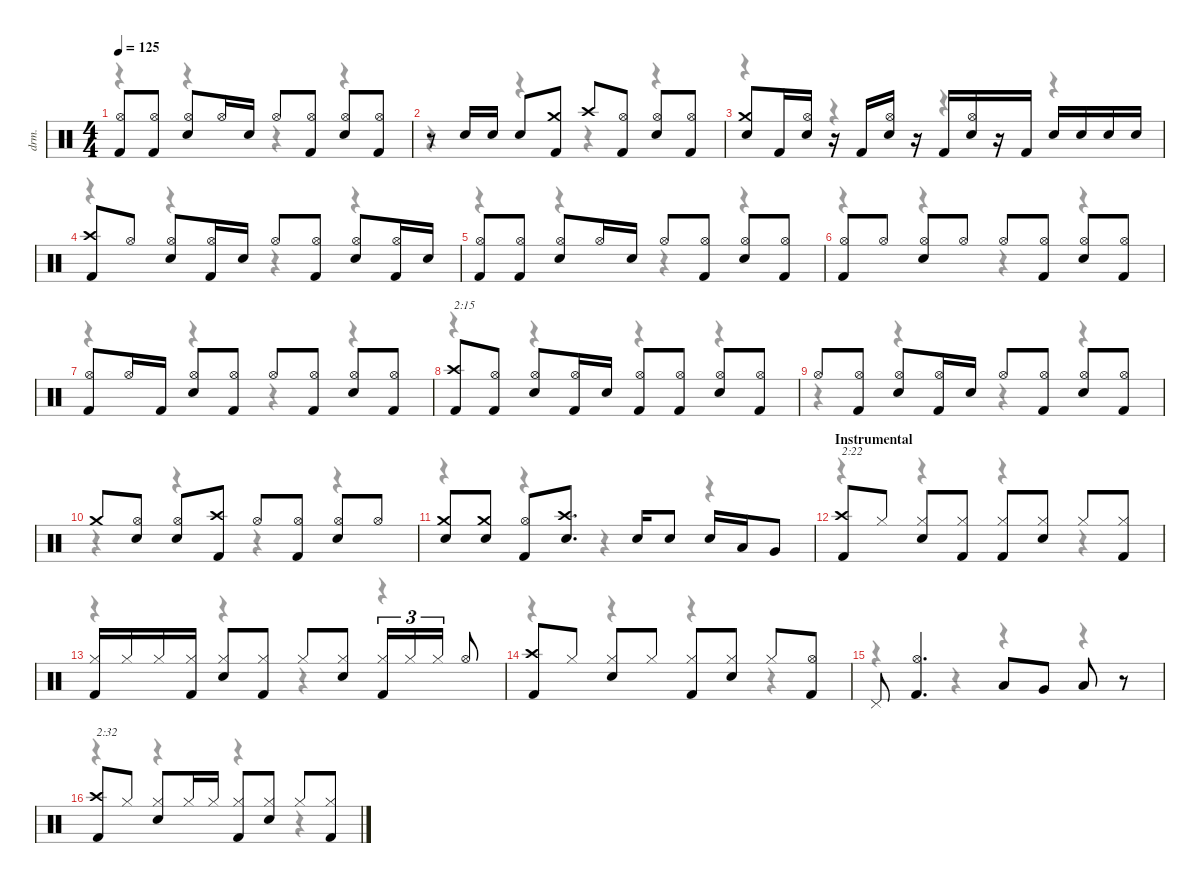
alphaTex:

\defaultSystemsLayout 4
\hideDynamics
\bracketExtendMode nobrackets
\otherSystemsTrackNameOrientation horizontal
\track ("Drums" "drm.") {instrument percussion}
\staff {score}
\articulation defaults
\voice
\ts (4 4)
\tempo 125
\clef neutral
\ks c
("Hi-Hat (open)" "Kick (hit) 2").8{dy f beam Up} ("Hi-Hat (open)" "Kick (hit) 2").8{beam Up} ("Hi-Hat (open)" "Snare (hit) 2").8{beam Up} "Hi-Hat (open)".16{beam Up} "Snare (hit) 2".16{beam Up} "Hi-Hat (open)".8{beam Up} ("Hi-Hat (open)" "Kick (hit) 2").8{beam Up} ("Hi-Hat (open)" "Snare (hit) 2").8{beam Up} ("Hi-Hat (open)" "Kick (hit) 2").8{beam Up} |
r.8{beam Up} "Snare (hit) 2".16{beam Up} "Snare (hit) 2".16{beam Up} "Snare (hit) 2".8{beam Up} ("Crash medium (hit)" "Kick (hit) 2").8{beam Up} "Crash high (hit)".8{beam Up} ("Hi-Hat (open)" "Kick (hit) 2").8{beam Up} ("Hi-Hat (open)" "Snare (hit) 2").8{beam Up} ("Hi-Hat (open)" "Kick (hit) 2").8{beam Up} |
("Crash medium (hit)" "Snare (hit) 2").8{beam Up} "Kick (hit) 2".16{beam Up} ("Hi-Hat (open)" "Snare (hit) 2").16{beam Up} r.16{beam Up} "Kick (hit) 2".16{beam Up} ("Hi-Hat (open)" "Snare (hit) 2").16{beam Up} r.16{beam Up} "Kick (hit) 2".16{beam Up} ("Hi-Hat (open)" "Snare (hit) 2").16{beam Up} r.16{beam Up} "Kick (hit) 2".16{beam Up} "Snare (hit) 2".16{beam Up} "Snare (hit) 2".16{beam Up} "Snare (hit) 2".16{beam Up} "Snare (hit) 2".16{beam Up} |
("Crash high (hit)" "Kick (hit) 2").8{beam Up} "Hi-Hat (open)".8{beam Up} ("Hi-Hat (open)" "Snare (hit) 2").8{beam Up} ("Hi-Hat (open)" "Kick (hit) 2").16{beam Up} "Snare (hit) 2".16{beam Up} "Hi-Hat (open)".8{beam Up} ("Hi-Hat (open)" "Kick (hit) 2").8{beam Up} ("Hi-Hat (open)" "Snare (hit) 2").8{beam Up} ("Hi-Hat (open)" "Kick (hit) 2").16{beam Up} "Snare (hit) 2".16{beam Up} |
("Hi-Hat (open)" "Kick (hit) 2").8{beam Up} ("Hi-Hat (open)" "Kick (hit) 2").8{beam Up} ("Hi-Hat (open)" "Snare (hit) 2").8{beam Up} "Hi-Hat (open)".16{beam Up} "Snare (hit) 2".16{beam Up} "Hi-Hat (open)".8{beam Up} ("Hi-Hat (open)" "Kick (hit) 2").8{beam Up} ("Hi-Hat (open)" "Snare (hit) 2").8{beam Up} ("Hi-Hat (open)" "Kick (hit) 2").8{beam Up} |
("Hi-Hat (open)" "Kick (hit) 2").8{beam Up} "Hi-Hat (open)".8{beam Up} ("Hi-Hat (open)" "Snare (hit) 2").8{beam Up} "Hi-Hat (open)".8{beam Up} "Hi-Hat (open)".8{beam Up} ("Hi-Hat (open)" "Kick (hit) 2").8{beam Up} ("Hi-Hat (open)" "Snare (hit) 2").8{beam Up} ("Hi-Hat (open)" "Kick (hit) 2").8{beam Up} |
("Hi-Hat (open)" "Kick (hit) 2").8{beam Up} "Hi-Hat (open)".16{beam Up} "Kick (hit) 2".16{beam Up} ("Hi-Hat (open)" "Snare (hit) 2").8{beam Up} ("Hi-Hat (open)" "Kick (hit) 2").8{beam Up} "Hi-Hat (open)".8{beam Up} ("Hi-Hat (open)" "Kick (hit) 2").8{beam Up} ("Hi-Hat (open)" "Snare (hit) 2").8{beam Up} ("Hi-Hat (open)" "Kick (hit) 2").8{beam Up} |
("Crash high (hit)" "Kick (hit) 2").8{txt "2:15" beam Up} ("Hi-Hat (open)" "Kick (hit) 2").8{beam Up} ("Hi-Hat (open)" "Snare (hit) 2").8{beam Up} ("Hi-Hat (open)" "Kick (hit) 2").16{beam Up} "Snare (hit) 2".16{beam Up} ("Hi-Hat (open)" "Kick (hit) 2").8{beam Up} ("Hi-Hat (open)" "Kick (hit) 2").8{beam Up} ("Hi-Hat (open)" "Snare (hit) 2").8{beam Up} ("Hi-Hat (open)" "Kick (hit) 2").8{beam Up} |
"Hi-Hat (open)".8{beam Up} ("Hi-Hat (open)" "Kick (hit) 2").8{beam Up} ("Hi-Hat (open)" "Snare (hit) 2").8{beam Up} ("Hi-Hat (open)" "Kick (hit) 2").16{beam Up} "Snare (hit) 2".16{beam Up} "Hi-Hat (open)".8{beam Up} ("Hi-Hat (open)" "Kick (hit) 2").8{beam Up} ("Hi-Hat (open)" "Snare (hit) 2").8{beam Up} ("Hi-Hat (open)" "Kick (hit) 2").8{beam Up} |
"Crash medium (hit)".8{beam Up} ("Hi-Hat (open)" "Snare (hit) 2").8{beam Up} ("Hi-Hat (open)" "Snare (hit) 2").8{beam Up} ("Crash high (hit)" "Kick (hit) 2").8{beam Up} "Hi-Hat (open)".8{beam Up} ("Hi-Hat (open)" "Kick (hit) 2").8{beam Up} ("Hi-Hat (open)" "Snare (hit) 2").8{beam Up} "Hi-Hat (open)".8{beam Up} |
("Crash medium (hit)" "Snare (hit) 2").8{beam Up} ("Crash medium (hit)" "Snare (hit) 2").8{beam Up} ("Hi-Hat (open)" "Kick (hit) 2").8{beam Up} ("Crash high (hit)" "Snare (hit) 2").8{d beam Up} "Snare (hit) 2".16{beam Up} "Snare (hit) 2".8{beam Up} "Snare (hit) 2".16{beam Up} "Low Tom (hit)".16{beam Up} "Very Low Tom (hit)".8{beam Up} |
\section ("" "Instrumental")
("Crash high (hit)" "Kick (hit) 2").8{txt "2:22" beam Up} "Hi-Hat (closed)".8{beam Up} ("Hi-Hat (closed)" "Snare (hit) 2").8{beam Up} ("Hi-Hat (closed)" "Kick (hit) 2").8{beam Up} ("Hi-Hat (closed)" "Kick (hit) 2").8{beam Up} ("Hi-Hat (closed)" "Snare (hit) 2").8{beam Up} "Hi-Hat (closed)".8{beam Up} ("Hi-Hat (closed)" "Kick (hit) 2").8{beam Up} |
("Hi-Hat (closed)" "Kick (hit) 2").16{beam Up} "Hi-Hat (closed)".16{beam Up} "Hi-Hat (closed)".16{beam Up} ("Hi-Hat (closed)" "Kick (hit) 2").16{beam Up} ("Hi-Hat (closed)" "Snare (hit) 2").8{beam Up} ("Hi-Hat (closed)" "Kick (hit) 2").8{beam Up} "Hi-Hat (closed)".8{beam Up} ("Hi-Hat (closed)" "Snare (hit) 2").8{beam Up} ("Hi-Hat (closed)" "Kick (hit) 2").16{tu (3 2) beam Up} "Hi-Hat (closed)".16{tu (3 2) beam Up} "Hi-Hat (closed)".16{tu (3 2) beam Up} "Hi-Hat (open)".8{beam Up} |
("Crash high (hit)" "Kick (hit) 2").8{beam Up} "Hi-Hat (closed)".8{beam Up} ("Hi-Hat (closed)" "Snare (hit) 2").8{beam Up} "Hi-Hat (closed)".8{beam Up} ("Hi-Hat (closed)" "Kick (hit) 2").8{beam Up} ("Hi-Hat (closed)" "Snare (hit) 2").8{beam Up} "Hi-Hat (closed)".8{beam Up} ("Hi-Hat (open)" "Kick (hit) 2").8{beam Up} |
"Pedal Hi-Hat (hit)".8{beam Up} ("Hi-Hat (open)" "Kick (hit) 2").4{d beam Up} "Low Tom (hit)".8{beam Up} "Very Low Tom (hit)".8{beam Up} "Low Floor Tom (hit)".8{beam Up} r.8{beam Up} |
("Crash high (hit)" "Kick (hit) 2").8{txt "2:32" beam Up} "Hi-Hat (closed)".8{beam Up} ("Hi-Hat (closed)" "Snare (hit) 2").8{beam Up} "Hi-Hat (closed)".16{beam Up} "Hi-Hat (closed)".16{beam Up} ("Hi-Hat (closed)" "Kick (hit) 2").8{beam Up} ("Hi-Hat (closed)" "Snare (hit) 2").8{beam Up} "Hi-Hat (closed)".8{beam Up} ("Hi-Hat (closed)" "Kick (hit) 2").8{beam Up}
\voice
\clef neutral
\ottava regular
\simile none
\ks c
r.4{dy mf beam Down} r.4{beam Down} r.4{beam Down} r.4{beam Down} |
r.4{beam Down} r.4{beam Down} r.4{beam Down} r.4{beam Down} |
r.4{beam Down} r.4{beam Down} r.4{beam Down} r.4{beam Down} |
r.4{beam Down} r.4{beam Down} r.4{beam Down} r.4{beam Down} |
r.4{beam Down} r.4{beam Down} r.4{beam Down} r.4{beam Down} |
r.4{beam Down} r.4{beam Down} r.4{beam Down} r.4{beam Down} |
r.4{beam Down} r.4{beam Down} r.4{beam Down} r.4{beam Down} |
r.4{beam Down} r.4{beam Down} r.4{beam Down} r.4{beam Down} |
r.4{beam Down} r.4{beam Down} r.4{beam Down} r.4{beam Down} |
r.4{beam Down} r.4{beam Down} r.4{beam Down} r.4{beam Down} |
r.4{beam Down} r.4{beam Down} r.4{beam Down} r.4{beam Down} |
r.4{beam Down} r.4{beam Down} r.4{beam Down} r.4{beam Down} |
r.4{beam Down} r.4{beam Down} r.4{beam Down} r.4{beam Down} |
r.4{beam Down} r.4{beam Down} r.4{beam Down} r.4{beam Down} |
r.4{beam Down} r.4{beam Down} r.4{beam Down} r.4{beam Down} |
r.4{beam Down} r.4{beam Down} r.4{beam Down} r.4{beam Down}
